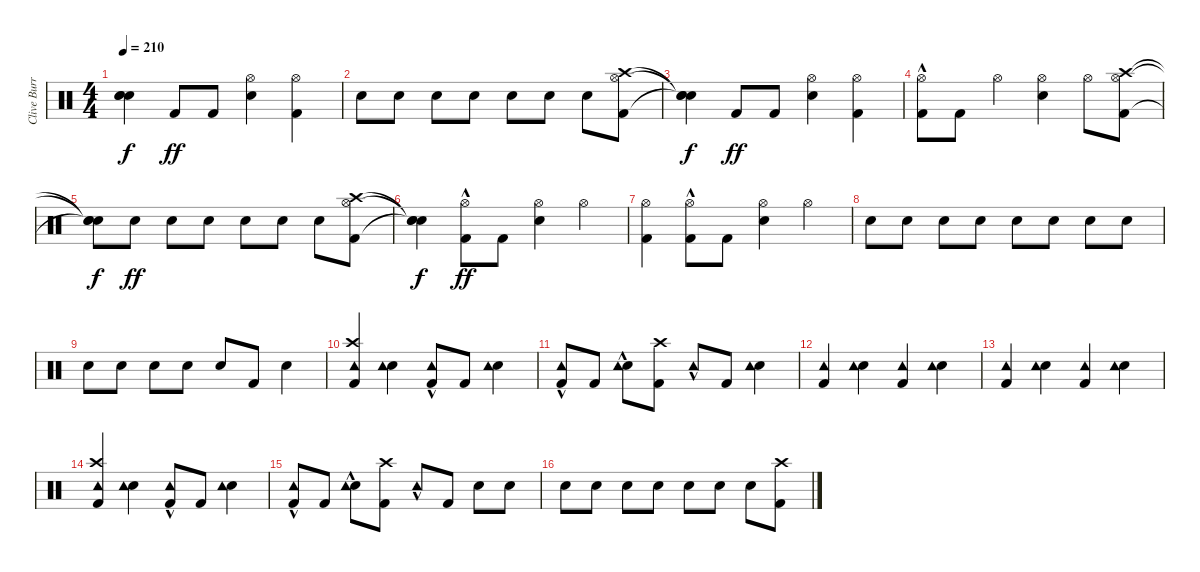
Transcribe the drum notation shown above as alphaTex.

\track ("Clive Burr" "Clive Burr") {instrument percussion}
\staff {score}
\articulation defaults
\ts (4 4)
\tempo 210
\clef neutral
\ks c
("Snare (hit)"{t} "Snare (hit)"{t} "Snare (hit)"{t}).4{dy f} "Kick (hit) 2".8{dy ff} "Kick (hit) 2".8 ("Snare (hit) 2" "Hi-Hat (open)").4 ("Kick (hit) 2" "Hi-Hat (open)").4 |
"Snare (hit) 2".8 "Snare (hit) 2".8 "Snare (hit) 2".8 "Snare (hit) 2".8 "Snare (hit) 2".8 "Snare (hit) 2".8 "Snare (hit) 2".8 ("Kick (hit) 2" "Hi-Hat (open)" "Crash high (hit)").8 |
("Snare (hit)"{t} "Snare (hit)"{t} "Snare (hit)"{t}).4{dy f} "Kick (hit) 2".8{dy ff} "Kick (hit) 2".8 ("Snare (hit) 2" "Hi-Hat (open)").4 ("Kick (hit) 2" "Hi-Hat (open)").4 |
("Kick (hit) 2" "Hi-Hat (open)"{hac}).8 "Kick (hit) 2".8 "Hi-Hat (open)".4 ("Snare (hit) 2" "Hi-Hat (open)").4 "Hi-Hat (open)".8 ("Kick (hit) 2" "Hi-Hat (open)" "Crash high (hit)").8 |
("Snare (hit)"{t} "Snare (hit)"{t} "Snare (hit)"{t}).8{dy f} "Snare (hit) 2".8{dy ff} "Snare (hit) 2".8 "Snare (hit) 2".8 "Snare (hit) 2".8 "Snare (hit) 2".8 "Snare (hit) 2".8 ("Kick (hit) 2" "Hi-Hat (open)" "Crash high (hit)").8 |
("Snare (hit)"{t} "Snare (hit)"{t} "Snare (hit)"{t}).4{dy f} ("Kick (hit) 2" "Hi-Hat (open)"{hac}).8{dy ff} "Kick (hit) 2".8 ("Snare (hit) 2" "Hi-Hat (open)").4 "Hi-Hat (open)".4 |
("Kick (hit) 2" "Hi-Hat (open)").4 ("Kick (hit) 2" "Hi-Hat (open)"{hac}).8 "Kick (hit) 2".8 ("Snare (hit) 2" "Hi-Hat (open)").4 "Hi-Hat (open)".4 |
"Snare (hit) 2".8 "Snare (hit) 2".8 "Snare (hit) 2".8 "Snare (hit) 2".8 "Snare (hit) 2".8 "Snare (hit) 2".8 "Snare (hit) 2".8 "Snare (hit) 2".8 |
"Snare (hit) 2".8 "Snare (hit) 2".8 "Snare (hit) 2".8 "Snare (hit) 2".8 "Snare (hit) 2".8 "Kick (hit) 2".8 "Snare (hit) 2".4 |
("Kick (hit) 2" "Crash high (hit)" "Tambourine (hit)").4 ("Snare (hit) 2" "Tambourine (hit)").4 ("Kick (hit) 2" "Tambourine (hit)"{hac}).8 "Kick (hit) 2".8 ("Snare (hit) 2" "Tambourine (hit)").4 |
("Kick (hit) 2" "Tambourine (hit)"{hac}).8 "Kick (hit) 2".8 ("Snare (hit) 2" "Tambourine (hit)"{hac}).8 ("Kick (hit) 2" "Crash high (hit)").8 "Tambourine (hit)"{hac}.8 "Kick (hit) 2".8 ("Snare (hit) 2" "Tambourine (hit)").4 |
("Kick (hit) 2" "Tambourine (hit)").4 ("Snare (hit) 2" "Tambourine (hit)").4 ("Kick (hit) 2" "Tambourine (hit)").4 ("Snare (hit) 2" "Tambourine (hit)").4 |
("Kick (hit) 2" "Tambourine (hit)").4 ("Snare (hit) 2" "Tambourine (hit)").4 ("Kick (hit) 2" "Tambourine (hit)").4 ("Snare (hit) 2" "Tambourine (hit)").4 |
("Kick (hit) 2" "Crash high (hit)" "Tambourine (hit)").4 ("Snare (hit) 2" "Tambourine (hit)").4 ("Kick (hit) 2" "Tambourine (hit)"{hac}).8 "Kick (hit) 2".8 ("Snare (hit) 2" "Tambourine (hit)").4 |
("Kick (hit) 2" "Tambourine (hit)"{hac}).8 "Kick (hit) 2".8 ("Snare (hit) 2" "Tambourine (hit)"{hac}).8 ("Kick (hit) 2" "Crash high (hit)").8 "Tambourine (hit)"{hac}.8 "Kick (hit) 2".8 "Snare (hit) 2".8 "Snare (hit) 2".8 |
"Snare (hit) 2".8 "Snare (hit) 2".8 "Snare (hit) 2".8 "Snare (hit) 2".8 "Snare (hit) 2".8 "Snare (hit) 2".8 "Snare (hit) 2".8 ("Kick (hit) 2" "Crash high (hit)").8
